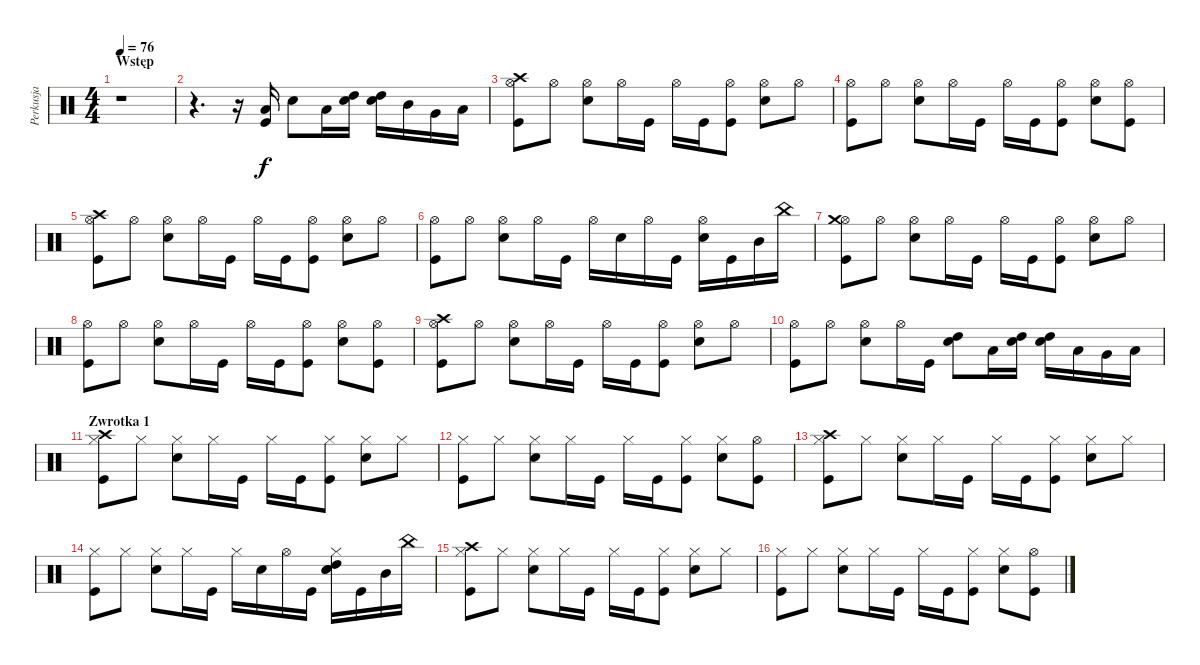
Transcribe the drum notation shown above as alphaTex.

\track ("Perkusja" "Perkusja") {instrument percussion}
\staff {score}
\articulation defaults
\ts (4 4)
\section ("" "Wstęp")
\tempo 76
\clef neutral
\ks c
r.1{dy f} |
r.4{d} r.16 ("Kick (hit)" "Low Tom (hit)").16 "Snare (hit) 2".8 "Low Tom (hit)".16 ("Snare (hit) 2" "High Tom (hit)").16 ("Snare (hit) 2" "High Tom (hit)").16 "Mid Tom (hit)".16 "Very Low Tom (hit)".16 "Low Floor Tom (hit)".16 |
("Kick (hit)" "Hi-Hat (open)" "Crash high (hit)").8 "Hi-Hat (open)".8 ("Snare (hit) 2" "Hi-Hat (open)").8 "Hi-Hat (open)".16 "Kick (hit)".16 "Hi-Hat (open)".16 "Kick (hit)".16 ("Kick (hit)" "Hi-Hat (open)").8 ("Snare (hit) 2" "Hi-Hat (open)").8 "Hi-Hat (open)".8 |
("Kick (hit)" "Hi-Hat (open)").8 "Hi-Hat (open)".8 ("Snare (hit) 2" "Hi-Hat (open)").8 "Hi-Hat (open)".16 "Kick (hit)".16 "Hi-Hat (open)".16 "Kick (hit)".16 ("Kick (hit)" "Hi-Hat (open)").8 ("Snare (hit) 2" "Hi-Hat (open)").8 ("Kick (hit)" "Hi-Hat (open)").8 |
("Kick (hit)" "Hi-Hat (open)" "Crash high (hit)").8 "Hi-Hat (open)".8 ("Snare (hit) 2" "Hi-Hat (open)").8 "Hi-Hat (open)".16 "Kick (hit)".16 "Hi-Hat (open)".16 "Kick (hit)".16 ("Kick (hit)" "Hi-Hat (open)").8 ("Snare (hit) 2" "Hi-Hat (open)").8 "Hi-Hat (open)".8 |
("Kick (hit)" "Hi-Hat (open)").8 "Hi-Hat (open)".8 ("Snare (hit) 2" "Hi-Hat (open)").8 "Hi-Hat (open)".16 "Kick (hit)".16 "Hi-Hat (open)".16 "Snare (hit) 2".16 "Hi-Hat (open)".16 "Kick (hit)".16 ("Snare (hit) 2" "Hi-Hat (open)").16 "Kick (hit)".16 "Mid Tom (hit)".16 "China (hit)".16 |
("Kick (hit)" "Hi-Hat (open)" "Crash medium (hit)").8 "Hi-Hat (open)".8 ("Snare (hit) 2" "Hi-Hat (open)").8 "Hi-Hat (open)".16 "Kick (hit)".16 "Hi-Hat (open)".16 "Kick (hit)".16 ("Kick (hit)" "Hi-Hat (open)").8 ("Snare (hit) 2" "Hi-Hat (open)").8 "Hi-Hat (open)".8 |
("Kick (hit)" "Hi-Hat (open)").8 "Hi-Hat (open)".8 ("Snare (hit) 2" "Hi-Hat (open)").8 "Hi-Hat (open)".16 "Kick (hit)".16 "Hi-Hat (open)".16 "Kick (hit)".16 ("Kick (hit)" "Hi-Hat (open)").8 ("Snare (hit) 2" "Hi-Hat (open)").8 ("Kick (hit)" "Hi-Hat (open)").8 |
("Kick (hit)" "Hi-Hat (open)" "Crash high (hit)").8 "Hi-Hat (open)".8 ("Snare (hit) 2" "Hi-Hat (open)").8 "Hi-Hat (open)".16 "Kick (hit)".16 "Hi-Hat (open)".16 "Kick (hit)".16 ("Kick (hit)" "Hi-Hat (open)").8 ("Snare (hit) 2" "Hi-Hat (open)").8 "Hi-Hat (open)".8 |
("Kick (hit)" "Hi-Hat (open)").8 "Hi-Hat (open)".8 ("Snare (hit) 2" "Hi-Hat (open)").8 "Hi-Hat (open)".16 "Kick (hit)".16 ("Snare (hit) 2" "High Tom (hit)").8 "Low Tom (hit)".16 ("Snare (hit) 2" "High Tom (hit)").16 ("Snare (hit) 2" "High Tom (hit)").16 "Low Tom (hit)".16 "Very Low Tom (hit)".16 "Low Floor Tom (hit)".16 |
\section ("" "Zwrotka 1")
("Kick (hit)" "Hi-Hat (closed)" "Crash high (hit)").8 "Hi-Hat (closed)".8 ("Snare (hit) 2" "Hi-Hat (closed)").8 "Hi-Hat (closed)".16 "Kick (hit)".16 "Hi-Hat (closed)".16 "Kick (hit)".16 ("Kick (hit)" "Hi-Hat (closed)").8 ("Snare (hit) 2" "Hi-Hat (closed)").8 "Hi-Hat (closed)".8 |
("Kick (hit)" "Hi-Hat (closed)").8 "Hi-Hat (closed)".8 ("Snare (hit) 2" "Hi-Hat (closed)").8 "Hi-Hat (closed)".16 "Kick (hit)".16 "Hi-Hat (closed)".16 "Kick (hit)".16 ("Kick (hit)" "Hi-Hat (closed)").8 ("Snare (hit) 2" "Hi-Hat (closed)").8 ("Kick (hit)" "Hi-Hat (open)").8 |
("Kick (hit)" "Hi-Hat (closed)" "Crash high (hit)").8 "Hi-Hat (closed)".8 ("Snare (hit) 2" "Hi-Hat (closed)").8 "Hi-Hat (closed)".16 "Kick (hit)".16 "Hi-Hat (closed)".16 "Kick (hit)".16 ("Kick (hit)" "Hi-Hat (closed)").8 ("Snare (hit) 2" "Hi-Hat (closed)").8 "Hi-Hat (closed)".8 |
("Kick (hit)" "Hi-Hat (closed)").8 "Hi-Hat (closed)".8 ("Snare (hit) 2" "Hi-Hat (closed)").8 "Hi-Hat (closed)".16 "Kick (hit)".16 "Hi-Hat (closed)".16 "Snare (hit) 2".16 "Hi-Hat (open)".16 "Kick (hit)".16 ("Snare (hit) 2" "Hi-Hat (closed)" "High Tom (hit)" "Snare (hit) 2").16 "Kick (hit)".16 "Mid Tom (hit)".16 "China (hit)".16 |
("Kick (hit)" "Hi-Hat (closed)" "Crash high (hit)").8 "Hi-Hat (closed)".8 ("Snare (hit) 2" "Hi-Hat (closed)").8 "Hi-Hat (closed)".16 "Kick (hit)".16 "Hi-Hat (closed)".16 "Kick (hit)".16 ("Kick (hit)" "Hi-Hat (closed)").8 ("Snare (hit) 2" "Hi-Hat (closed)").8 "Hi-Hat (closed)".8 |
("Kick (hit)" "Hi-Hat (closed)").8 "Hi-Hat (closed)".8 ("Snare (hit) 2" "Hi-Hat (closed)").8 "Hi-Hat (closed)".16 "Kick (hit)".16 "Hi-Hat (closed)".16 "Kick (hit)".16 ("Kick (hit)" "Hi-Hat (closed)").8 ("Snare (hit) 2" "Hi-Hat (closed)").8 ("Kick (hit)" "Hi-Hat (open)").8
